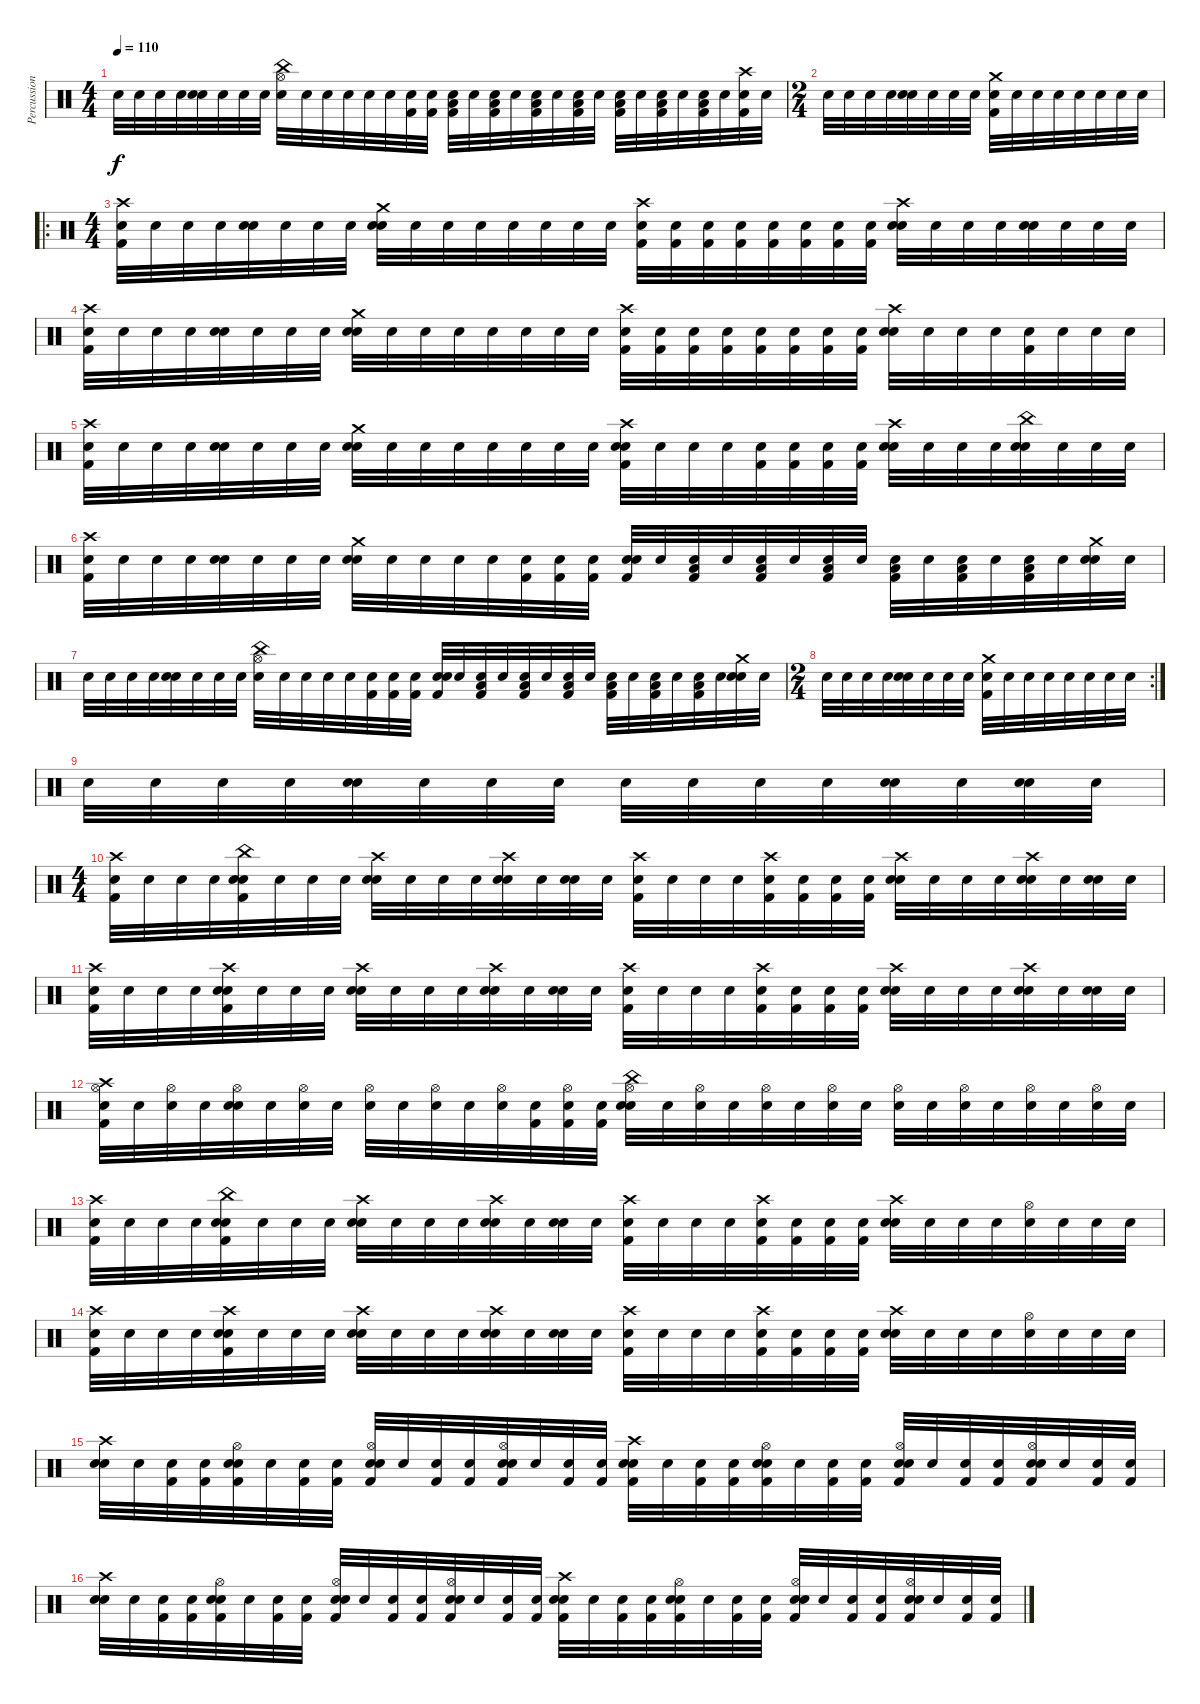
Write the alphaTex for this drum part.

\track ("Percussions" "Percussion") {instrument percussion}
\staff {score}
\articulation defaults
\ts (4 4)
\tempo 110
\clef neutral
\ks c "Snare (hit)".32{dy f} "Snare (hit)".32 "Snare (hit)".32 "Snare (hit)".32
("Snare (hit)" "Snare (hit)").32 "Snare (hit)".32 "Snare (hit)".32 "Snare (hit)".32 ("China (hit)" "Hi-Hat (open)" "Snare (hit)").32 "Snare (hit)".32 "Snare (hit)".32 "Snare (hit)".32 "Snare (hit)".32 "Snare (hit)".32 ("Kick (hit) 2" "Snare (hit)").32 ("Kick (hit) 2" "Snare (hit)").32 ("Low Tom (hit)" "Kick (hit) 2" "Snare (hit)").32 "Snare (hit)".32 ("Low Tom (hit)" "Kick (hit) 2" "Snare (hit)").32 "Snare (hit)".32 ("Low Tom (hit)" "Kick (hit) 2" "Snare (hit)").32 "Snare (hit)".32 ("Low Tom (hit)" "Kick (hit) 2" "Snare (hit)").32 "Snare (hit)".32 ("Low Tom (hit)" "Kick (hit) 2" "Snare (hit)").32 "Snare (hit)".32 ("Low Tom (hit)" "Kick (hit) 2" "Snare (hit)").32 "Snare (hit)".32 ("Low Tom (hit)" "Kick (hit) 2" "Snare (hit)").32 "Snare (hit)".32 ("Crash high (hit)" "Kick (hit) 2" "Snare (hit)").32 "Snare (hit)".32 |
\ts (2 4)
"Snare (hit)".32 "Snare (hit)".32 "Snare (hit)".32 "Snare (hit)".32 ("Snare (hit)" "Snare (hit)").32 "Snare (hit)".32 "Snare (hit)".32 "Snare (hit)".32 ("Crash medium (hit)" "Kick (hit) 2" "Snare (hit)").32 "Snare (hit)".32 "Snare (hit)".32 "Snare (hit)".32 "Snare (hit)".32 "Snare (hit)".32 "Snare (hit)".32 "Snare (hit)".32 |
\ro
\ts (4 4)
("Crash high (hit)" "Kick (hit) 2" "Snare (hit)").32 "Snare (hit)".32 "Snare (hit)".32 "Snare (hit)".32 ("Snare (hit)" "Snare (hit)").32 "Snare (hit)".32 "Snare (hit)".32 "Snare (hit)".32 ("Crash medium (hit)" "Snare (hit) 2" "Snare (hit)").32 "Snare (hit)".32 "Snare (hit)".32 "Snare (hit)".32 "Snare (hit)".32 "Snare (hit)".32 "Snare (hit)".32 "Snare (hit)".32 ("Crash high (hit)" "Kick (hit) 2" "Snare (hit)").32 ("Kick (hit) 2" "Snare (hit)").32 ("Kick (hit) 2" "Snare (hit)").32 ("Kick (hit) 2" "Snare (hit)").32 ("Kick (hit) 2" "Snare (hit)").32 ("Kick (hit) 2" "Snare (hit)").32 ("Kick (hit) 2" "Snare (hit)").32 ("Kick (hit) 2" "Snare (hit)").32 ("Crash high (hit)" "Snare (hit) 2" "Snare (hit)").32 "Snare (hit)".32 "Snare (hit)".32 "Snare (hit)".32 ("Snare (hit) 2" "Snare (hit)").32 "Snare (hit)".32 "Snare (hit)".32 "Snare (hit)".32 |
("Crash high (hit)" "Kick (hit) 2" "Snare (hit)").32 "Snare (hit)".32 "Snare (hit)".32 "Snare (hit)".32 ("Snare (hit)" "Snare (hit)").32 "Snare (hit)".32 "Snare (hit)".32 "Snare (hit)".32 ("Crash medium (hit)" "Snare (hit) 2" "Snare (hit)").32 "Snare (hit)".32 "Snare (hit)".32 "Snare (hit)".32 "Snare (hit)".32 "Snare (hit)".32 "Snare (hit)".32 "Snare (hit)".32 ("Crash high (hit)" "Kick (hit) 2" "Snare (hit)").32 ("Kick (hit) 2" "Snare (hit)").32 ("Kick (hit) 2" "Snare (hit)").32 ("Kick (hit) 2" "Snare (hit)").32 ("Kick (hit) 2" "Snare (hit)").32 ("Kick (hit) 2" "Snare (hit)").32 ("Kick (hit) 2" "Snare (hit)").32 ("Kick (hit) 2" "Snare (hit)").32 ("Crash high (hit)" "Snare (hit) 2" "Snare (hit)").32 "Snare (hit)".32 "Snare (hit)".32 "Snare (hit)".32 ("Kick (hit) 2" "Snare (hit)").32 "Snare (hit)".32 "Snare (hit)".32 "Snare (hit)".32 |
("Crash high (hit)" "Kick (hit) 2" "Snare (hit)").32 "Snare (hit)".32 "Snare (hit)".32 "Snare (hit)".32 ("Snare (hit)" "Snare (hit)").32 "Snare (hit)".32 "Snare (hit)".32 "Snare (hit)".32 ("Crash medium (hit)" "Snare (hit) 2" "Snare (hit)").32 "Snare (hit)".32 "Snare (hit)".32 "Snare (hit)".32 "Snare (hit)".32 "Snare (hit)".32 "Snare (hit)".32 "Snare (hit)".32 ("Crash high (hit)" "Snare (hit) 2" "Kick (hit) 2" "Snare (hit)").32 "Snare (hit)".32 "Snare (hit)".32 "Snare (hit)".32 ("Kick (hit) 2" "Snare (hit)").32 ("Kick (hit) 2" "Snare (hit)").32 ("Kick (hit) 2" "Snare (hit)").32 ("Kick (hit) 2" "Snare (hit)").32 ("Crash high (hit)" "Snare (hit) 2" "Snare (hit)").32 "Snare (hit)".32 "Snare (hit)".32 "Snare (hit)".32 ("China (hit)" "Snare (hit) 2" "Snare (hit)").32 "Snare (hit)".32 "Snare (hit)".32 "Snare (hit)".32 |
("Crash high (hit)" "Kick (hit) 2" "Snare (hit)").32 "Snare (hit)".32 "Snare (hit)".32 "Snare (hit)".32 ("Snare (hit)" "Snare (hit)").32 "Snare (hit)".32 "Snare (hit)".32 "Snare (hit)".32 ("Crash medium (hit)" "Snare (hit) 2" "Snare (hit)").32 "Snare (hit)".32 "Snare (hit)".32 "Snare (hit)".32 "Snare (hit)".32 ("Kick (hit) 2" "Snare (hit)").32 ("Kick (hit) 2" "Snare (hit)").32 ("Kick (hit) 2" "Snare (hit)").32 ("Kick (hit) 2" "Snare (hit) 2" "Snare (hit)").32 "Snare (hit)".32 ("Kick (hit) 2" "Low Tom (hit)" "Snare (hit)").32 "Snare (hit)".32 ("Kick (hit) 2" "Low Tom (hit)" "Snare (hit)").32 "Snare (hit)".32 ("Kick (hit) 2" "Low Tom (hit)" "Snare (hit)").32 "Snare (hit)".32 ("Kick (hit) 2" "Low Tom (hit)" "Snare (hit)").32 "Snare (hit)".32 ("Kick (hit) 2" "Low Tom (hit)" "Snare (hit)").32 "Snare (hit)".32 ("Kick (hit) 2" "Low Tom (hit)" "Snare (hit)").32 "Snare (hit)".32 ("Crash medium (hit)" "Snare (hit) 2" "Snare (hit)").32 "Snare (hit)".32 |
"Snare (hit)".32 "Snare (hit)".32 "Snare (hit)".32 "Snare (hit)".32 ("Snare (hit)" "Snare (hit)").32 "Snare (hit)".32 "Snare (hit)".32 "Snare (hit)".32 ("China (hit)" "Hi-Hat (open)" "Snare (hit)").32 "Snare (hit)".32 "Snare (hit)".32 "Snare (hit)".32 "Snare (hit)".32 ("Kick (hit) 2" "Snare (hit)").32 ("Kick (hit) 2" "Snare (hit)").32 ("Kick (hit) 2" "Snare (hit)").32 ("Kick (hit) 2" "Snare (hit) 2" "Snare (hit)").32 "Snare (hit)".32 ("Kick (hit) 2" "Low Tom (hit)" "Snare (hit)").32 "Snare (hit)".32 ("Kick (hit) 2" "Low Tom (hit)" "Snare (hit)").32 "Snare (hit)".32 ("Kick (hit) 2" "Low Tom (hit)" "Snare (hit)").32 "Snare (hit)".32 ("Kick (hit) 2" "Low Tom (hit)" "Snare (hit)").32 "Snare (hit)".32 ("Kick (hit) 2" "Low Tom (hit)" "Snare (hit)").32 "Snare (hit)".32 ("Kick (hit) 2" "Low Tom (hit)" "Snare (hit)").32 "Snare (hit)".32 ("Crash medium (hit)" "Snare (hit) 2" "Snare (hit)").32 "Snare (hit)".32 |
\rc 2
\ts (2 4)
"Snare (hit)".32 "Snare (hit)".32 "Snare (hit)".32 "Snare (hit)".32 ("Snare (hit)" "Snare (hit)").32 "Snare (hit)".32 "Snare (hit)".32 "Snare (hit)".32 ("Crash medium (hit)" "Kick (hit) 2" "Snare (hit)").32 "Snare (hit)".32 "Snare (hit)".32 "Snare (hit)".32 "Snare (hit)".32 "Snare (hit)".32 "Snare (hit)".32 "Snare (hit)".32 |
"Snare (hit)".32 "Snare (hit)".32 "Snare (hit)".32 "Snare (hit)".32 ("Snare (hit)" "Snare (hit)").32 "Snare (hit)".32 "Snare (hit)".32 "Snare (hit)".32 "Snare (hit)".32 "Snare (hit)".32 "Snare (hit)".32 "Snare (hit)".32 ("Snare (hit) 2" "Snare (hit)").32 "Snare (hit)".32 ("Snare (hit) 2" "Snare (hit)").32 "Snare (hit)".32 |
\ts (4 4)
("Crash high (hit)" "Kick (hit) 2" "Snare (hit)").32 "Snare (hit)".32 "Snare (hit)".32 "Snare (hit)".32 ("China (hit)" "Kick (hit) 2" "Snare (hit)" "Snare (hit)").32 "Snare (hit)".32 "Snare (hit)".32 "Snare (hit)".32 ("Crash high (hit)" "Snare (hit) 2" "Snare (hit)").32 "Snare (hit)".32 "Snare (hit)".32 "Snare (hit)".32 ("Crash high (hit)" "Snare (hit) 2" "Snare (hit)").32 "Snare (hit)".32 ("Snare (hit) 2" "Snare (hit)").32 "Snare (hit)".32 ("Crash high (hit)" "Kick (hit) 2" "Snare (hit)").32 "Snare (hit)".32 "Snare (hit)".32 "Snare (hit)".32 ("Crash high (hit)" "Kick (hit) 2" "Snare (hit)").32 ("Kick (hit) 2" "Snare (hit)").32 ("Kick (hit) 2" "Snare (hit)").32 ("Kick (hit) 2" "Snare (hit)").32 ("Crash high (hit)" "Snare (hit) 2" "Snare (hit)").32 "Snare (hit)".32 "Snare (hit)".32 "Snare (hit)".32 ("Crash high (hit)" "Snare (hit) 2" "Snare (hit)").32 "Snare (hit)".32 ("Snare (hit) 2" "Snare (hit)").32 "Snare (hit)".32 |
("Crash high (hit)" "Kick (hit) 2" "Snare (hit)").32 "Snare (hit)".32 "Snare (hit)".32 "Snare (hit)".32 ("Crash high (hit)" "Kick (hit) 2" "Snare (hit)" "Snare (hit)").32 "Snare (hit)".32 "Snare (hit)".32 "Snare (hit)".32 ("Crash high (hit)" "Snare (hit) 2" "Snare (hit)").32 "Snare (hit)".32 "Snare (hit)".32 "Snare (hit)".32 ("Crash high (hit)" "Snare (hit) 2" "Snare (hit)").32 "Snare (hit)".32 ("Snare (hit) 2" "Snare (hit)").32 "Snare (hit)".32 ("Crash high (hit)" "Kick (hit) 2" "Snare (hit)").32 "Snare (hit)".32 "Snare (hit)".32 "Snare (hit)".32 ("Crash high (hit)" "Kick (hit) 2" "Snare (hit)").32 ("Kick (hit) 2" "Snare (hit)").32 ("Kick (hit) 2" "Snare (hit)").32 ("Kick (hit) 2" "Snare (hit)").32 ("Crash high (hit)" "Snare (hit) 2" "Snare (hit)").32 "Snare (hit)".32 "Snare (hit)".32 "Snare (hit)".32 ("Crash high (hit)" "Snare (hit) 2" "Snare (hit)").32 "Snare (hit)".32 ("Snare (hit) 2" "Snare (hit)").32 "Snare (hit)".32 |
("Crash high (hit)" "Hi-Hat (open)" "Kick (hit) 2" "Snare (hit)").32 "Snare (hit)".32 ("Hi-Hat (open)" "Snare (hit)").32 "Snare (hit)".32 ("Hi-Hat (open)" "Snare (hit)" "Snare (hit)").32 "Snare (hit)".32 ("Hi-Hat (open)" "Snare (hit)").32 "Snare (hit)".32 ("Hi-Hat (open)" "Snare (hit)").32 "Snare (hit)".32 ("Hi-Hat (open)" "Snare (hit)").32 "Snare (hit)".32 ("Hi-Hat (open)" "Snare (hit)").32 ("Kick (hit) 2" "Snare (hit)").32 ("Hi-Hat (open)" "Kick (hit) 2" "Snare (hit)").32 ("Kick (hit) 2" "Snare (hit)").32 ("China (hit)" "Hi-Hat (open)" "Snare (hit) 2" "Snare (hit)").32 "Snare (hit)".32 ("Hi-Hat (open)" "Snare (hit)").32 "Snare (hit)".32 ("Hi-Hat (open)" "Snare (hit)").32 "Snare (hit)".32 ("Hi-Hat (open)" "Snare (hit)").32 "Snare (hit)".32 ("Hi-Hat (open)" "Snare (hit)").32 "Snare (hit)".32 ("Hi-Hat (open)" "Snare (hit)").32 "Snare (hit)".32 ("Hi-Hat (open)" "Snare (hit)").32 "Snare (hit)".32 ("Hi-Hat (open)" "Snare (hit)").32 "Snare (hit)".32 |
("Crash high (hit)" "Kick (hit) 2" "Snare (hit)").32 "Snare (hit)".32 "Snare (hit)".32 "Snare (hit)".32 ("China (hit)" "Kick (hit) 2" "Snare (hit)" "Snare (hit)").32 "Snare (hit)".32 "Snare (hit)".32 "Snare (hit)".32 ("Crash high (hit)" "Snare (hit) 2" "Snare (hit)").32 "Snare (hit)".32 "Snare (hit)".32 "Snare (hit)".32 ("Crash high (hit)" "Snare (hit) 2" "Snare (hit)").32 "Snare (hit)".32 ("Snare (hit) 2" "Snare (hit)").32 "Snare (hit)".32 ("Crash high (hit)" "Kick (hit) 2" "Snare (hit)").32 "Snare (hit)".32 "Snare (hit)".32 "Snare (hit)".32 ("Crash high (hit)" "Kick (hit) 2" "Snare (hit)").32 ("Kick (hit) 2" "Snare (hit)").32 ("Kick (hit) 2" "Snare (hit)").32 ("Kick (hit) 2" "Snare (hit)").32 ("Crash high (hit)" "Snare (hit) 2" "Snare (hit)").32 "Snare (hit)".32 "Snare (hit)".32 "Snare (hit)".32 ("Hi-Hat (open)" "Snare (hit)").32 "Snare (hit)".32 "Snare (hit)".32 "Snare (hit)".32 |
("Crash high (hit)" "Kick (hit) 2" "Snare (hit)").32 "Snare (hit)".32 "Snare (hit)".32 "Snare (hit)".32 ("Crash high (hit)" "Kick (hit) 2" "Snare (hit)" "Snare (hit)").32 "Snare (hit)".32 "Snare (hit)".32 "Snare (hit)".32 ("Crash high (hit)" "Snare (hit) 2" "Snare (hit)").32 "Snare (hit)".32 "Snare (hit)".32 "Snare (hit)".32 ("Crash high (hit)" "Snare (hit) 2" "Snare (hit)").32 "Snare (hit)".32 ("Snare (hit) 2" "Snare (hit)").32 "Snare (hit)".32 ("Crash high (hit)" "Kick (hit) 2" "Snare (hit)").32 "Snare (hit)".32 "Snare (hit)".32 "Snare (hit)".32 ("Crash high (hit)" "Kick (hit) 2" "Snare (hit)").32 ("Kick (hit) 2" "Snare (hit)").32 ("Kick (hit) 2" "Snare (hit)").32 ("Kick (hit) 2" "Snare (hit)").32 ("Crash high (hit)" "Snare (hit) 2" "Snare (hit)").32 "Snare (hit)".32 "Snare (hit)".32 "Snare (hit)".32 ("Hi-Hat (open)" "Snare (hit)").32 "Snare (hit)".32 "Snare (hit)".32 "Snare (hit)".32 |
("Crash high (hit)" "Snare (hit) 2" "Snare (hit)").32 "Snare (hit)".32 ("Kick (hit) 2" "Snare (hit)").32 ("Kick (hit) 2" "Snare (hit)").32 ("Hi-Hat (open)" "Snare (hit) 2" "Kick (hit) 2" "Snare (hit)").32 "Snare (hit)".32 ("Kick (hit) 2" "Snare (hit)").32 ("Kick (hit) 2" "Snare (hit)").32 ("Hi-Hat (open)" "Snare (hit) 2" "Kick (hit) 2" "Snare (hit)").32 "Snare (hit)".32 ("Kick (hit) 2" "Snare (hit)").32 ("Kick (hit) 2" "Snare (hit)").32 ("Hi-Hat (open)" "Snare (hit) 2" "Kick (hit) 2" "Snare (hit)").32 "Snare (hit)".32 ("Kick (hit) 2" "Snare (hit)").32 ("Kick (hit) 2" "Snare (hit)").32 ("Crash high (hit)" "Snare (hit) 2" "Kick (hit) 2" "Snare (hit)").32 "Snare (hit)".32 ("Kick (hit) 2" "Snare (hit)").32 ("Kick (hit) 2" "Snare (hit)").32 ("Hi-Hat (open)" "Snare (hit) 2" "Kick (hit) 2" "Snare (hit)").32 "Snare (hit)".32 ("Kick (hit) 2" "Snare (hit)").32 ("Kick (hit) 2" "Snare (hit)").32 ("Hi-Hat (open)" "Snare (hit) 2" "Kick (hit) 2" "Snare (hit)").32 "Snare (hit)".32 ("Kick (hit) 2" "Snare (hit)").32 ("Kick (hit) 2" "Snare (hit)").32 ("Hi-Hat (open)" "Snare (hit) 2" "Kick (hit) 2" "Snare (hit)").32 "Snare (hit)".32 ("Kick (hit) 2" "Snare (hit)").32 ("Kick (hit) 2" "Snare (hit)").32 |
("Crash high (hit)" "Snare (hit) 2" "Snare (hit)").32 "Snare (hit)".32 ("Kick (hit) 2" "Snare (hit)").32 ("Kick (hit) 2" "Snare (hit)").32 ("Hi-Hat (open)" "Snare (hit) 2" "Kick (hit) 2" "Snare (hit)").32 "Snare (hit)".32 ("Kick (hit) 2" "Snare (hit)").32 ("Kick (hit) 2" "Snare (hit)").32 ("Hi-Hat (open)" "Snare (hit) 2" "Kick (hit) 2" "Snare (hit)").32 "Snare (hit)".32 ("Kick (hit) 2" "Snare (hit)").32 ("Kick (hit) 2" "Snare (hit)").32 ("Hi-Hat (open)" "Snare (hit) 2" "Kick (hit) 2" "Snare (hit)").32 "Snare (hit)".32 ("Kick (hit) 2" "Snare (hit)").32 ("Kick (hit) 2" "Snare (hit)").32 ("Crash high (hit)" "Snare (hit) 2" "Kick (hit) 2" "Snare (hit)").32 "Snare (hit)".32 ("Kick (hit) 2" "Snare (hit)").32 ("Kick (hit) 2" "Snare (hit)").32 ("Hi-Hat (open)" "Snare (hit) 2" "Kick (hit) 2" "Snare (hit)").32 "Snare (hit)".32 ("Kick (hit) 2" "Snare (hit)").32 ("Kick (hit) 2" "Snare (hit)").32 ("Hi-Hat (open)" "Snare (hit) 2" "Kick (hit) 2" "Snare (hit)").32 "Snare (hit)".32 ("Kick (hit) 2" "Snare (hit)").32 ("Kick (hit) 2" "Snare (hit)").32 ("Hi-Hat (open)" "Snare (hit) 2" "Kick (hit) 2" "Snare (hit)").32 "Snare (hit)".32 ("Kick (hit) 2" "Snare (hit)").32 ("Kick (hit) 2" "Snare (hit)").32
